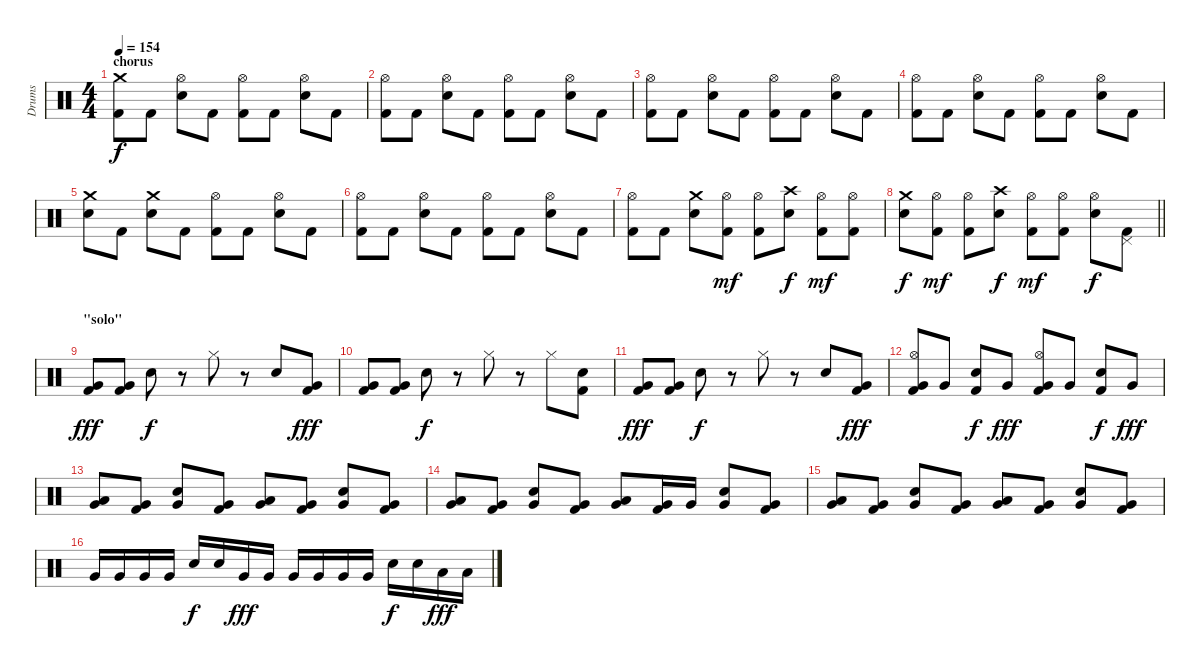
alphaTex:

\track ("Drums" "Drums") {instrument percussion}
\staff {score}
\articulation defaults
\ts (4 4)
\section ("" "chorus")
\tempo 154
\clef neutral
\ks c
("Crash medium (hit)" "Kick (hit) 2").8{dy f} "Kick (hit) 2".8 ("Hi-Hat (open)" "Snare (hit) 2").8 "Kick (hit) 2".8 ("Hi-Hat (open)" "Kick (hit) 2").8 "Kick (hit) 2".8 ("Hi-Hat (open)" "Snare (hit) 2").8 "Kick (hit) 2".8 |
("Hi-Hat (open)" "Kick (hit) 2").8 "Kick (hit) 2".8 ("Hi-Hat (open)" "Snare (hit) 2").8 "Kick (hit) 2".8 ("Hi-Hat (open)" "Kick (hit) 2").8 "Kick (hit) 2".8 ("Hi-Hat (open)" "Snare (hit) 2").8 "Kick (hit) 2".8 |
("Hi-Hat (open)" "Kick (hit) 2").8 "Kick (hit) 2".8 ("Hi-Hat (open)" "Snare (hit) 2").8 "Kick (hit) 2".8 ("Hi-Hat (open)" "Kick (hit) 2").8 "Kick (hit) 2".8 ("Hi-Hat (open)" "Snare (hit) 2").8 "Kick (hit) 2".8 |
("Hi-Hat (open)" "Kick (hit) 2").8 "Kick (hit) 2".8 ("Hi-Hat (open)" "Snare (hit) 2").8 "Kick (hit) 2".8 ("Hi-Hat (open)" "Kick (hit) 2").8 "Kick (hit) 2".8 ("Hi-Hat (open)" "Snare (hit) 2").8 "Kick (hit) 2".8 |
("Crash medium (hit)" "Snare (hit) 2").8 "Kick (hit) 2".8 ("Crash medium (hit)" "Snare (hit) 2").8 "Kick (hit) 2".8 ("Hi-Hat (open)" "Kick (hit) 2").8 "Kick (hit) 2".8 ("Hi-Hat (open)" "Snare (hit) 2").8 "Kick (hit) 2".8 |
("Hi-Hat (open)" "Kick (hit) 2").8 "Kick (hit) 2".8 ("Hi-Hat (open)" "Snare (hit) 2").8 "Kick (hit) 2".8 ("Hi-Hat (open)" "Kick (hit) 2").8 "Kick (hit) 2".8 ("Hi-Hat (open)" "Snare (hit) 2").8 "Kick (hit) 2".8 |
("Hi-Hat (open)" "Kick (hit) 2").8 "Kick (hit) 2".8 ("Crash medium (hit)" "Snare (hit) 2").8 ("Hi-Hat (open)" "Kick (hit) 2").8{dy mf} ("Hi-Hat (open)" "Kick (hit) 2").8 ("Crash high (hit)" "Snare (hit) 2").8{dy f} ("Hi-Hat (open)" "Kick (hit) 2").8{dy mf} ("Hi-Hat (open)" "Kick (hit) 2").8 |
\barLineRight lightlight
("Crash medium (hit)" "Snare (hit) 2").8{dy f} ("Hi-Hat (open)" "Kick (hit) 2").8{dy mf} ("Hi-Hat (open)" "Kick (hit) 2").8 ("Crash high (hit)" "Snare (hit) 2").8{dy f} ("Hi-Hat (open)" "Kick (hit) 2").8{dy mf} ("Hi-Hat (open)" "Kick (hit) 2").8 ("Hi-Hat (open)" "Snare (hit) 2").8{dy f} ("Pedal Hi-Hat (hit)" "Kick (hit) 2").8 |
\section ("" "\"solo\"")
("Very Low Tom (hit)" "Kick (hit) 2").8{dy fff} ("Very Low Tom (hit)" "Kick (hit) 2").8 "Snare (hit) 2".8{dy f} r.8 "Hi-Hat (closed)".8 r.8 "Snare (hit) 2".8 ("Very Low Tom (hit)" "Kick (hit) 2").8{dy fff} |
("Very Low Tom (hit)" "Kick (hit) 2").8 ("Very Low Tom (hit)" "Kick (hit) 2").8 "Snare (hit) 2".8{dy f} r.8 "Hi-Hat (closed)".8 r.8 "Hi-Hat (closed)".8 ("Snare (hit) 2" "Kick (hit) 2").8 |
("Very Low Tom (hit)" "Kick (hit) 2").8{dy fff} ("Very Low Tom (hit)" "Kick (hit) 2").8 "Snare (hit) 2".8{dy f} r.8 "Hi-Hat (closed)".8 r.8 "Snare (hit) 2".8 ("Very Low Tom (hit)" "Kick (hit) 2").8{dy fff} |
("Hi-Hat (open)" "Very Low Tom (hit)" "Kick (hit) 2").8 "Very Low Tom (hit)".8 ("Snare (hit) 2" "Kick (hit) 2").8{dy f} "Very Low Tom (hit)".8{dy fff} ("Hi-Hat (open)" "Very Low Tom (hit)" "Kick (hit) 2").8 "Very Low Tom (hit)".8 ("Snare (hit) 2" "Kick (hit) 2").8{dy f} "Very Low Tom (hit)".8{dy fff} |
("Very Low Tom (hit)" "Low Floor Tom (hit)").8 ("Very Low Tom (hit)" "Kick (hit) 2").8 ("Very Low Tom (hit)" "Snare (hit) 2").8 ("Very Low Tom (hit)" "Kick (hit) 2").8 ("Very Low Tom (hit)" "Low Floor Tom (hit)").8 ("Very Low Tom (hit)" "Kick (hit) 2").8 ("Very Low Tom (hit)" "Snare (hit) 2").8 ("Very Low Tom (hit)" "Kick (hit) 2").8 |
("Very Low Tom (hit)" "Low Floor Tom (hit)").8 ("Very Low Tom (hit)" "Kick (hit) 2").8 ("Very Low Tom (hit)" "Snare (hit) 2").8 ("Very Low Tom (hit)" "Kick (hit) 2").8 ("Very Low Tom (hit)" "Low Floor Tom (hit)").8 ("Very Low Tom (hit)" "Kick (hit) 2").16 "Very Low Tom (hit)".16 ("Very Low Tom (hit)" "Snare (hit) 2").8 ("Very Low Tom (hit)" "Kick (hit) 2").8 |
("Very Low Tom (hit)" "Low Floor Tom (hit)").8 ("Very Low Tom (hit)" "Kick (hit) 2").8 ("Very Low Tom (hit)" "Snare (hit) 2").8 ("Very Low Tom (hit)" "Kick (hit) 2").8 ("Very Low Tom (hit)" "Low Floor Tom (hit)").8 ("Very Low Tom (hit)" "Kick (hit) 2").8 ("Very Low Tom (hit)" "Snare (hit) 2").8 ("Very Low Tom (hit)" "Kick (hit) 2").8 |
"Very Low Tom (hit)".16 "Very Low Tom (hit)".16 "Very Low Tom (hit)".16 "Very Low Tom (hit)".16 "Snare (hit) 2".16{dy f} "Snare (hit) 2".16 "Very Low Tom (hit)".16{dy fff} "Very Low Tom (hit)".16 "Very Low Tom (hit)".16 "Very Low Tom (hit)".16 "Very Low Tom (hit)".16 "Very Low Tom (hit)".16 "Snare (hit) 2".16{dy f} "Snare (hit) 2".16 "Low Floor Tom (hit)".16{dy fff} "Low Floor Tom (hit)".16
